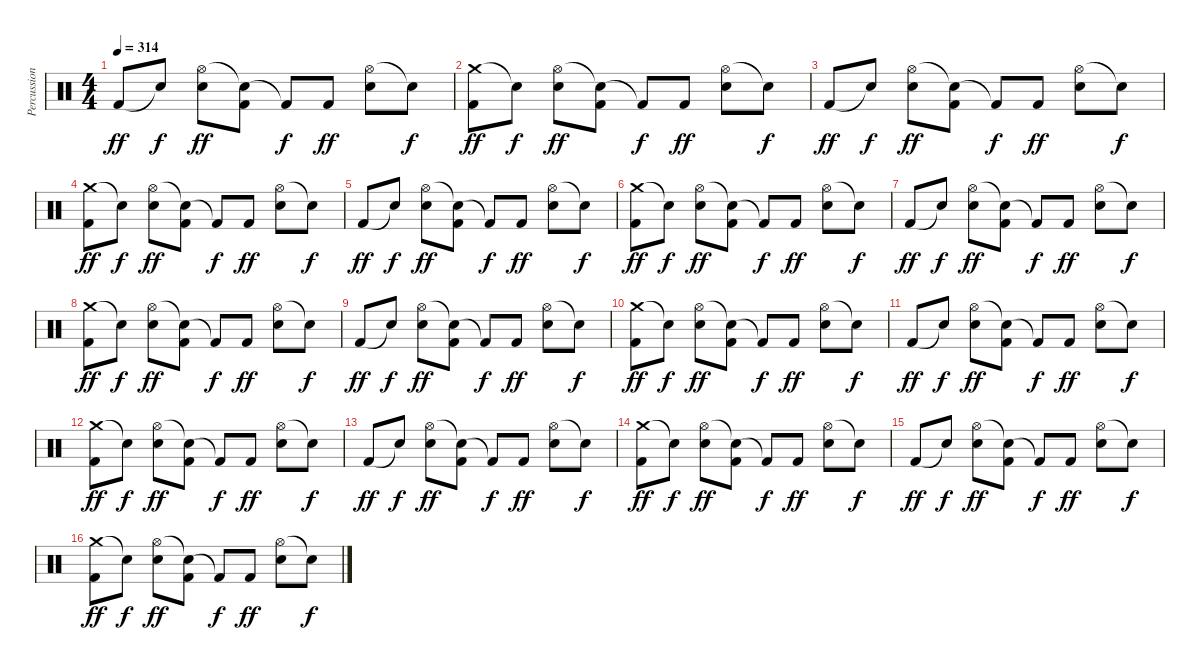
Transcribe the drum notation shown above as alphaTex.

\track ("Percussion" "Percussion") {instrument percussion}
\staff {score}
\articulation defaults
\ts (4 4)
\tempo 314
\clef neutral
\ks c "Kick (hit) 2".8{dy ff} "Snare (hit)"{t}.8{dy f}
("Hi-Hat (open)" "Snare (hit) 2").8{dy ff} ("Snare (hit)"{t} "Kick (hit) 2").8 "Kick (hit) 2"{t}.8{dy f} "Kick (hit) 2".8{dy ff} ("Hi-Hat (open)" "Snare (hit) 2").8 "Snare (hit)"{t}.8{dy f} |
("Crash medium (hit)" "Kick (hit) 2").8{dy ff} "Snare (hit)"{t}.8{dy f} ("Hi-Hat (open)" "Snare (hit) 2").8{dy ff} ("Snare (hit)"{t} "Kick (hit) 2").8 "Kick (hit) 2"{t}.8{dy f} "Kick (hit) 2".8{dy ff} ("Hi-Hat (open)" "Snare (hit) 2").8 "Snare (hit)"{t}.8{dy f} |
"Kick (hit) 2".8{dy ff} "Snare (hit)"{t}.8{dy f} ("Hi-Hat (open)" "Snare (hit) 2").8{dy ff} ("Snare (hit)"{t} "Kick (hit) 2").8 "Kick (hit) 2"{t}.8{dy f} "Kick (hit) 2".8{dy ff} ("Hi-Hat (open)" "Snare (hit) 2").8 "Snare (hit)"{t}.8{dy f} |
("Crash medium (hit)" "Kick (hit) 2").8{dy ff} "Snare (hit)"{t}.8{dy f} ("Hi-Hat (open)" "Snare (hit) 2").8{dy ff} ("Snare (hit)"{t} "Kick (hit) 2").8 "Kick (hit) 2"{t}.8{dy f} "Kick (hit) 2".8{dy ff} ("Hi-Hat (open)" "Snare (hit) 2").8 "Snare (hit)"{t}.8{dy f} |
"Kick (hit) 2".8{dy ff} "Snare (hit)"{t}.8{dy f} ("Hi-Hat (open)" "Snare (hit) 2").8{dy ff} ("Snare (hit)"{t} "Kick (hit) 2").8 "Kick (hit) 2"{t}.8{dy f} "Kick (hit) 2".8{dy ff} ("Hi-Hat (open)" "Snare (hit) 2").8 "Snare (hit)"{t}.8{dy f} |
("Crash medium (hit)" "Kick (hit) 2").8{dy ff} "Snare (hit)"{t}.8{dy f} ("Hi-Hat (open)" "Snare (hit) 2").8{dy ff} ("Snare (hit)"{t} "Kick (hit) 2").8 "Kick (hit) 2"{t}.8{dy f} "Kick (hit) 2".8{dy ff} ("Hi-Hat (open)" "Snare (hit) 2").8 "Snare (hit)"{t}.8{dy f} |
"Kick (hit) 2".8{dy ff} "Snare (hit)"{t}.8{dy f} ("Hi-Hat (open)" "Snare (hit) 2").8{dy ff} ("Snare (hit)"{t} "Kick (hit) 2").8 "Kick (hit) 2"{t}.8{dy f} "Kick (hit) 2".8{dy ff} ("Hi-Hat (open)" "Snare (hit) 2").8 "Snare (hit)"{t}.8{dy f} |
("Crash medium (hit)" "Kick (hit) 2").8{dy ff} "Snare (hit)"{t}.8{dy f} ("Hi-Hat (open)" "Snare (hit) 2").8{dy ff} ("Snare (hit)"{t} "Kick (hit) 2").8 "Kick (hit) 2"{t}.8{dy f} "Kick (hit) 2".8{dy ff} ("Hi-Hat (open)" "Snare (hit) 2").8 "Snare (hit)"{t}.8{dy f} |
"Kick (hit) 2".8{dy ff} "Snare (hit)"{t}.8{dy f} ("Hi-Hat (open)" "Snare (hit) 2").8{dy ff} ("Snare (hit)"{t} "Kick (hit) 2").8 "Kick (hit) 2"{t}.8{dy f} "Kick (hit) 2".8{dy ff} ("Hi-Hat (open)" "Snare (hit) 2").8 "Snare (hit)"{t}.8{dy f} |
("Crash medium (hit)" "Kick (hit) 2").8{dy ff} "Snare (hit)"{t}.8{dy f} ("Hi-Hat (open)" "Snare (hit) 2").8{dy ff} ("Snare (hit)"{t} "Kick (hit) 2").8 "Kick (hit) 2"{t}.8{dy f} "Kick (hit) 2".8{dy ff} ("Hi-Hat (open)" "Snare (hit) 2").8 "Snare (hit)"{t}.8{dy f} |
"Kick (hit) 2".8{dy ff} "Snare (hit)"{t}.8{dy f} ("Hi-Hat (open)" "Snare (hit) 2").8{dy ff} ("Snare (hit)"{t} "Kick (hit) 2").8 "Kick (hit) 2"{t}.8{dy f} "Kick (hit) 2".8{dy ff} ("Hi-Hat (open)" "Snare (hit) 2").8 "Snare (hit)"{t}.8{dy f} |
("Crash medium (hit)" "Kick (hit) 2").8{dy ff} "Snare (hit)"{t}.8{dy f} ("Hi-Hat (open)" "Snare (hit) 2").8{dy ff} ("Snare (hit)"{t} "Kick (hit) 2").8 "Kick (hit) 2"{t}.8{dy f} "Kick (hit) 2".8{dy ff} ("Hi-Hat (open)" "Snare (hit) 2").8 "Snare (hit)"{t}.8{dy f} |
"Kick (hit) 2".8{dy ff} "Snare (hit)"{t}.8{dy f} ("Hi-Hat (open)" "Snare (hit) 2").8{dy ff} ("Snare (hit)"{t} "Kick (hit) 2").8 "Kick (hit) 2"{t}.8{dy f} "Kick (hit) 2".8{dy ff} ("Hi-Hat (open)" "Snare (hit) 2").8 "Snare (hit)"{t}.8{dy f} |
("Crash medium (hit)" "Kick (hit) 2").8{dy ff} "Snare (hit)"{t}.8{dy f} ("Hi-Hat (open)" "Snare (hit) 2").8{dy ff} ("Snare (hit)"{t} "Kick (hit) 2").8 "Kick (hit) 2"{t}.8{dy f} "Kick (hit) 2".8{dy ff} ("Hi-Hat (open)" "Snare (hit) 2").8 "Snare (hit)"{t}.8{dy f} |
"Kick (hit) 2".8{dy ff} "Snare (hit)"{t}.8{dy f} ("Hi-Hat (open)" "Snare (hit) 2").8{dy ff} ("Snare (hit)"{t} "Kick (hit) 2").8 "Kick (hit) 2"{t}.8{dy f} "Kick (hit) 2".8{dy ff} ("Hi-Hat (open)" "Snare (hit) 2").8 "Snare (hit)"{t}.8{dy f} |
("Crash medium (hit)" "Kick (hit) 2").8{dy ff} "Snare (hit)"{t}.8{dy f} ("Hi-Hat (open)" "Snare (hit) 2").8{dy ff} ("Snare (hit)"{t} "Kick (hit) 2").8 "Kick (hit) 2"{t}.8{dy f} "Kick (hit) 2".8{dy ff} ("Hi-Hat (open)" "Snare (hit) 2").8 "Snare (hit)"{t}.8{dy f}
